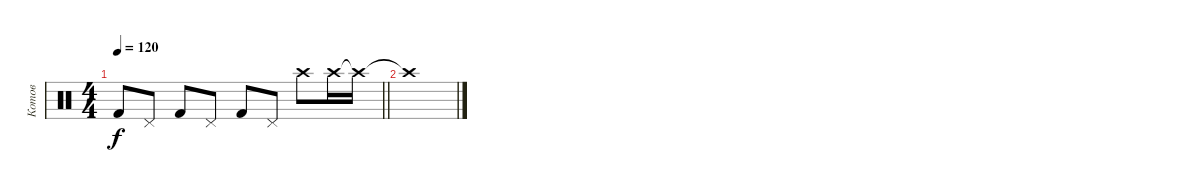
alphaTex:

\track ("Котов" "Котов") {instrument percussion}
\staff {score}
\articulation defaults
\ts (4 4)
\tempo 120
\clef neutral
\barLineRight lightlight
\ks c "Kick (hit) 2".8{dy f} "Pedal Hi-Hat (hit)".8 "Kick (hit) 2".8 "Pedal Hi-Hat (hit)".8 "Kick (hit) 2".8 "Pedal Hi-Hat (hit)".8 "Crash high (hit)".8 "Crash high (hit)".16 "Crash high (hit)"{t}.16
|
"Crash high (hit)"{t}.1
